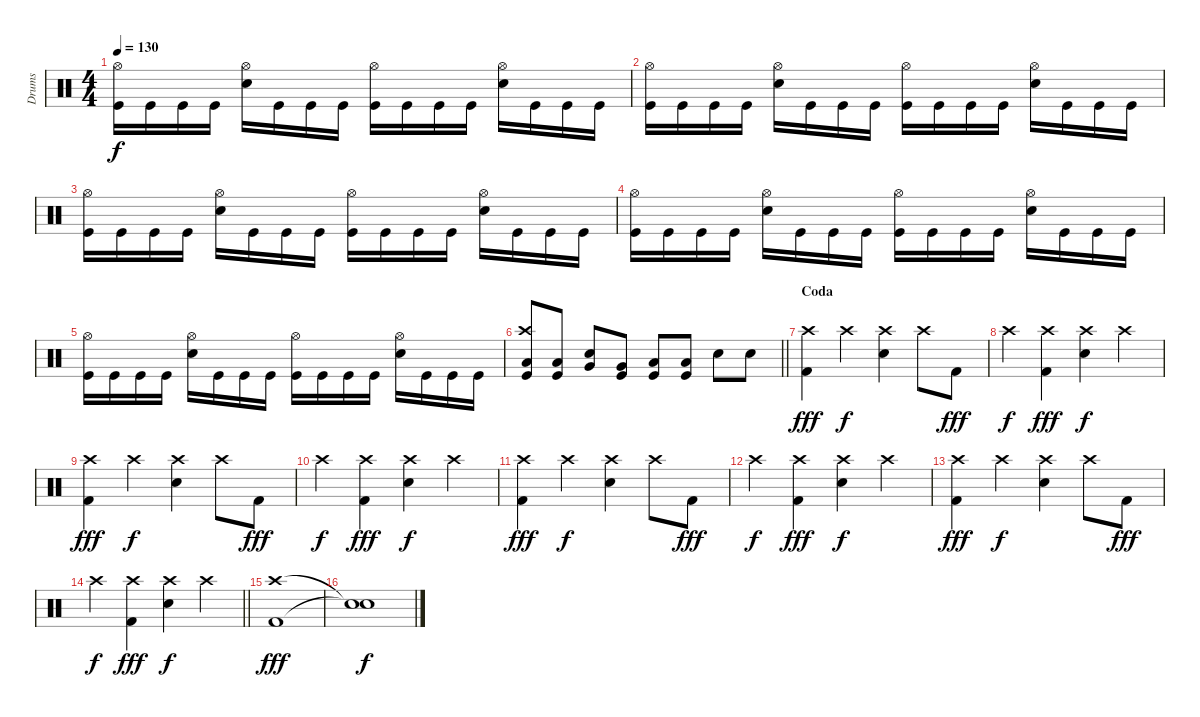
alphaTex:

\track ("Drums" "Drums") {instrument percussion}
\staff {score}
\articulation defaults
\ts (4 4)
\tempo 130
\clef neutral
\ks c
("Hi-Hat (open)" "Kick (hit)").16{dy f} "Kick (hit)".16 "Kick (hit)".16 "Kick (hit)".16 ("Hi-Hat (open)" "Electric Snare (hit)").16 "Kick (hit)".16 "Kick (hit)".16 "Kick (hit)".16 ("Hi-Hat (open)" "Kick (hit)").16 "Kick (hit)".16 "Kick (hit)".16 "Kick (hit)".16 ("Hi-Hat (open)" "Electric Snare (hit)").16 "Kick (hit)".16 "Kick (hit)".16 "Kick (hit)".16 |
("Hi-Hat (open)" "Kick (hit)").16 "Kick (hit)".16 "Kick (hit)".16 "Kick (hit)".16 ("Hi-Hat (open)" "Electric Snare (hit)").16 "Kick (hit)".16 "Kick (hit)".16 "Kick (hit)".16 ("Hi-Hat (open)" "Kick (hit)").16 "Kick (hit)".16 "Kick (hit)".16 "Kick (hit)".16 ("Hi-Hat (open)" "Electric Snare (hit)").16 "Kick (hit)".16 "Kick (hit)".16 "Kick (hit)".16 |
("Hi-Hat (open)" "Kick (hit)").16 "Kick (hit)".16 "Kick (hit)".16 "Kick (hit)".16 ("Hi-Hat (open)" "Electric Snare (hit)").16 "Kick (hit)".16 "Kick (hit)".16 "Kick (hit)".16 ("Hi-Hat (open)" "Kick (hit)").16 "Kick (hit)".16 "Kick (hit)".16 "Kick (hit)".16 ("Hi-Hat (open)" "Electric Snare (hit)").16 "Kick (hit)".16 "Kick (hit)".16 "Kick (hit)".16 |
("Hi-Hat (open)" "Kick (hit)").16 "Kick (hit)".16 "Kick (hit)".16 "Kick (hit)".16 ("Hi-Hat (open)" "Electric Snare (hit)").16 "Kick (hit)".16 "Kick (hit)".16 "Kick (hit)".16 ("Hi-Hat (open)" "Kick (hit)").16 "Kick (hit)".16 "Kick (hit)".16 "Kick (hit)".16 ("Hi-Hat (open)" "Electric Snare (hit)").16 "Kick (hit)".16 "Kick (hit)".16 "Kick (hit)".16 |
("Hi-Hat (open)" "Kick (hit)").16 "Kick (hit)".16 "Kick (hit)".16 "Kick (hit)".16 ("Hi-Hat (open)" "Electric Snare (hit)").16 "Kick (hit)".16 "Kick (hit)".16 "Kick (hit)".16 ("Hi-Hat (open)" "Kick (hit)").16 "Kick (hit)".16 "Kick (hit)".16 "Kick (hit)".16 ("Hi-Hat (open)" "Electric Snare (hit)").16 "Kick (hit)".16 "Kick (hit)".16 "Kick (hit)".16 |
\barLineRight lightlight
("Crash high (hit)" "Low Floor Tom (hit)" "Kick (hit)").8 ("Low Floor Tom (hit)" "Kick (hit)").8 ("Very Low Tom (hit)" "Electric Snare (hit)").8 ("Very Low Tom (hit)" "Kick (hit)").8 ("Low Tom (hit)" "Kick (hit)").8 ("Low Tom (hit)" "Kick (hit)").8 "Electric Snare (hit)".8 "Electric Snare (hit)".8 |
\section ("" "Coda ")
("Crash high (hit)" "Kick (hit) 2").4{dy fff} "Crash high (hit)".4{dy f} ("Crash high (hit)" "Electric Snare (hit)").4 "Crash high (hit)".8 "Kick (hit) 2".8{dy fff} |
"Crash high (hit)".4{dy f} ("Crash high (hit)" "Kick (hit) 2").4{dy fff} ("Crash high (hit)" "Electric Snare (hit)").4{dy f} "Crash high (hit)".4 |
("Crash high (hit)" "Kick (hit) 2").4{dy fff} "Crash high (hit)".4{dy f} ("Crash high (hit)" "Electric Snare (hit)").4 "Crash high (hit)".8 "Kick (hit) 2".8{dy fff} |
"Crash high (hit)".4{dy f} ("Crash high (hit)" "Kick (hit) 2").4{dy fff} ("Crash high (hit)" "Electric Snare (hit)").4{dy f} "Crash high (hit)".4 |
("Crash high (hit)" "Kick (hit) 2").4{dy fff} "Crash high (hit)".4{dy f} ("Crash high (hit)" "Electric Snare (hit)").4 "Crash high (hit)".8 "Kick (hit) 2".8{dy fff} |
"Crash high (hit)".4{dy f} ("Crash high (hit)" "Kick (hit) 2").4{dy fff} ("Crash high (hit)" "Electric Snare (hit)").4{dy f} "Crash high (hit)".4 |
("Crash high (hit)" "Kick (hit) 2").4{dy fff} "Crash high (hit)".4{dy f} ("Crash high (hit)" "Electric Snare (hit)").4 "Crash high (hit)".8 "Kick (hit) 2".8{dy fff} |
\barLineRight lightlight "Crash high (hit)".4{dy f}
("Crash high (hit)" "Kick (hit) 2").4{dy fff} ("Crash high (hit)" "Electric Snare (hit)").4{dy f} "Crash high (hit)".4 |
("Crash high (hit)" "Kick (hit) 2").1{dy fff} |
("Snare (hit)"{t} "Snare (hit)"{t}).1{dy f}
